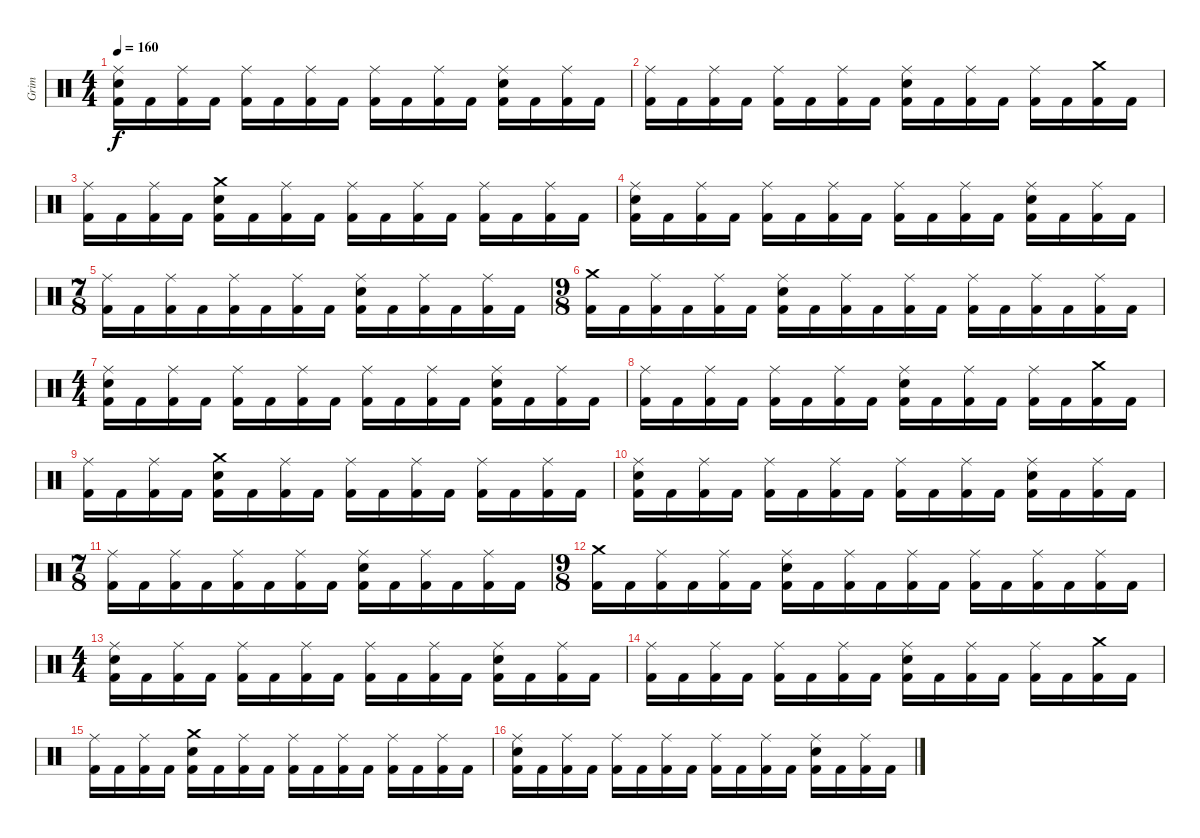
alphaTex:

\track ("Grim" "Grim") {instrument percussion}
\staff {score}
\articulation defaults
\ts (4 4)
\tempo 160
\clef neutral
\ks c
("Kick (hit) 2" "Electric Snare (hit)" "Ride (middle)").16{dy f} "Kick (hit) 2".16 ("Kick (hit) 2" "Ride (middle)").16 "Kick (hit) 2".16 ("Kick (hit) 2" "Ride (middle)").16 "Kick (hit) 2".16 ("Kick (hit) 2" "Ride (middle)").16 "Kick (hit) 2".16 ("Kick (hit) 2" "Ride (middle)").16 "Kick (hit) 2".16 ("Kick (hit) 2" "Ride (middle)").16 "Kick (hit) 2".16 ("Kick (hit) 2" "Electric Snare (hit)" "Ride (middle)").16 "Kick (hit) 2".16 ("Kick (hit) 2" "Ride (middle)").16 "Kick (hit) 2".16 |
("Kick (hit) 2" "Ride (middle)").16 "Kick (hit) 2".16 ("Kick (hit) 2" "Ride (middle)").16 "Kick (hit) 2".16 ("Kick (hit) 2" "Ride (middle)").16 "Kick (hit) 2".16 ("Kick (hit) 2" "Ride (middle)").16 "Kick (hit) 2".16 ("Kick (hit) 2" "Electric Snare (hit)" "Ride (middle)").16 "Kick (hit) 2".16 ("Kick (hit) 2" "Ride (middle)").16 "Kick (hit) 2".16 ("Kick (hit) 2" "Ride (middle)").16 "Kick (hit) 2".16 ("Kick (hit) 2" "Crash medium (hit)").16 "Kick (hit) 2".16 |
("Kick (hit) 2" "Ride (middle)").16 "Kick (hit) 2".16 ("Kick (hit) 2" "Ride (middle)").16 "Kick (hit) 2".16 ("Kick (hit) 2" "Electric Snare (hit)" "Crash medium (hit)").16 "Kick (hit) 2".16 ("Kick (hit) 2" "Ride (middle)").16 "Kick (hit) 2".16 ("Kick (hit) 2" "Ride (middle)").16 "Kick (hit) 2".16 ("Kick (hit) 2" "Ride (middle)").16 "Kick (hit) 2".16 ("Kick (hit) 2" "Ride (middle)").16 "Kick (hit) 2".16 ("Kick (hit) 2" "Ride (middle)").16 "Kick (hit) 2".16 |
("Kick (hit) 2" "Electric Snare (hit)" "Ride (middle)").16 "Kick (hit) 2".16 ("Kick (hit) 2" "Ride (middle)").16 "Kick (hit) 2".16 ("Kick (hit) 2" "Ride (middle)").16 "Kick (hit) 2".16 ("Kick (hit) 2" "Ride (middle)").16 "Kick (hit) 2".16 ("Kick (hit) 2" "Ride (middle)").16 "Kick (hit) 2".16 ("Kick (hit) 2" "Ride (middle)").16 "Kick (hit) 2".16 ("Kick (hit) 2" "Electric Snare (hit)" "Ride (middle)").16 "Kick (hit) 2".16 ("Kick (hit) 2" "Ride (middle)").16 "Kick (hit) 2".16 |
\ts (7 8)
("Kick (hit) 2" "Ride (middle)").16 "Kick (hit) 2".16 ("Kick (hit) 2" "Ride (middle)").16 "Kick (hit) 2".16 ("Kick (hit) 2" "Ride (middle)").16 "Kick (hit) 2".16 ("Kick (hit) 2" "Ride (middle)").16 "Kick (hit) 2".16 ("Kick (hit) 2" "Electric Snare (hit)" "Ride (middle)").16 "Kick (hit) 2".16 ("Kick (hit) 2" "Ride (middle)").16 "Kick (hit) 2".16 ("Kick (hit) 2" "Ride (middle)").16 "Kick (hit) 2".16 |
\ts (9 8)
("Kick (hit) 2" "Crash medium (hit)").16 "Kick (hit) 2".16 ("Kick (hit) 2" "Ride (middle)").16 "Kick (hit) 2".16 ("Kick (hit) 2" "Ride (middle)").16 "Kick (hit) 2".16 ("Kick (hit) 2" "Electric Snare (hit)" "Ride (middle)").16 "Kick (hit) 2".16 ("Kick (hit) 2" "Ride (middle)").16 "Kick (hit) 2".16 ("Kick (hit) 2" "Ride (middle)").16 "Kick (hit) 2".16 ("Kick (hit) 2" "Ride (middle)").16 "Kick (hit) 2".16 ("Kick (hit) 2" "Ride (middle)").16 "Kick (hit) 2".16 ("Kick (hit) 2" "Ride (middle)").16 "Kick (hit) 2".16 |
\ts (4 4)
("Kick (hit) 2" "Electric Snare (hit)" "Ride (middle)").16 "Kick (hit) 2".16 ("Kick (hit) 2" "Ride (middle)").16 "Kick (hit) 2".16 ("Kick (hit) 2" "Ride (middle)").16 "Kick (hit) 2".16 ("Kick (hit) 2" "Ride (middle)").16 "Kick (hit) 2".16 ("Kick (hit) 2" "Ride (middle)").16 "Kick (hit) 2".16 ("Kick (hit) 2" "Ride (middle)").16 "Kick (hit) 2".16 ("Kick (hit) 2" "Electric Snare (hit)" "Ride (middle)").16 "Kick (hit) 2".16 ("Kick (hit) 2" "Ride (middle)").16 "Kick (hit) 2".16 |
("Kick (hit) 2" "Ride (middle)").16 "Kick (hit) 2".16 ("Kick (hit) 2" "Ride (middle)").16 "Kick (hit) 2".16 ("Kick (hit) 2" "Ride (middle)").16 "Kick (hit) 2".16 ("Kick (hit) 2" "Ride (middle)").16 "Kick (hit) 2".16 ("Kick (hit) 2" "Electric Snare (hit)" "Ride (middle)").16 "Kick (hit) 2".16 ("Kick (hit) 2" "Ride (middle)").16 "Kick (hit) 2".16 ("Kick (hit) 2" "Ride (middle)").16 "Kick (hit) 2".16 ("Kick (hit) 2" "Crash medium (hit)").16 "Kick (hit) 2".16 |
("Kick (hit) 2" "Ride (middle)").16 "Kick (hit) 2".16 ("Kick (hit) 2" "Ride (middle)").16 "Kick (hit) 2".16 ("Kick (hit) 2" "Electric Snare (hit)" "Crash medium (hit)").16 "Kick (hit) 2".16 ("Kick (hit) 2" "Ride (middle)").16 "Kick (hit) 2".16 ("Kick (hit) 2" "Ride (middle)").16 "Kick (hit) 2".16 ("Kick (hit) 2" "Ride (middle)").16 "Kick (hit) 2".16 ("Kick (hit) 2" "Ride (middle)").16 "Kick (hit) 2".16 ("Kick (hit) 2" "Ride (middle)").16 "Kick (hit) 2".16 |
("Kick (hit) 2" "Electric Snare (hit)" "Ride (middle)").16 "Kick (hit) 2".16 ("Kick (hit) 2" "Ride (middle)").16 "Kick (hit) 2".16 ("Kick (hit) 2" "Ride (middle)").16 "Kick (hit) 2".16 ("Kick (hit) 2" "Ride (middle)").16 "Kick (hit) 2".16 ("Kick (hit) 2" "Ride (middle)").16 "Kick (hit) 2".16 ("Kick (hit) 2" "Ride (middle)").16 "Kick (hit) 2".16 ("Kick (hit) 2" "Electric Snare (hit)" "Ride (middle)").16 "Kick (hit) 2".16 ("Kick (hit) 2" "Ride (middle)").16 "Kick (hit) 2".16 |
\ts (7 8)
("Kick (hit) 2" "Ride (middle)").16 "Kick (hit) 2".16 ("Kick (hit) 2" "Ride (middle)").16 "Kick (hit) 2".16 ("Kick (hit) 2" "Ride (middle)").16 "Kick (hit) 2".16 ("Kick (hit) 2" "Ride (middle)").16 "Kick (hit) 2".16 ("Kick (hit) 2" "Electric Snare (hit)" "Ride (middle)").16 "Kick (hit) 2".16 ("Kick (hit) 2" "Ride (middle)").16 "Kick (hit) 2".16 ("Kick (hit) 2" "Ride (middle)").16 "Kick (hit) 2".16 |
\ts (9 8)
("Kick (hit) 2" "Crash medium (hit)").16 "Kick (hit) 2".16 ("Kick (hit) 2" "Ride (middle)").16 "Kick (hit) 2".16 ("Kick (hit) 2" "Ride (middle)").16 "Kick (hit) 2".16 ("Kick (hit) 2" "Electric Snare (hit)" "Ride (middle)").16 "Kick (hit) 2".16 ("Kick (hit) 2" "Ride (middle)").16 "Kick (hit) 2".16 ("Kick (hit) 2" "Ride (middle)").16 "Kick (hit) 2".16 ("Kick (hit) 2" "Ride (middle)").16 "Kick (hit) 2".16 ("Kick (hit) 2" "Ride (middle)").16 "Kick (hit) 2".16 ("Kick (hit) 2" "Ride (middle)").16 "Kick (hit) 2".16 |
\ts (4 4)
("Kick (hit) 2" "Electric Snare (hit)" "Ride (middle)").16 "Kick (hit) 2".16 ("Kick (hit) 2" "Ride (middle)").16 "Kick (hit) 2".16 ("Kick (hit) 2" "Ride (middle)").16 "Kick (hit) 2".16 ("Kick (hit) 2" "Ride (middle)").16 "Kick (hit) 2".16 ("Kick (hit) 2" "Ride (middle)").16 "Kick (hit) 2".16 ("Kick (hit) 2" "Ride (middle)").16 "Kick (hit) 2".16 ("Kick (hit) 2" "Electric Snare (hit)" "Ride (middle)").16 "Kick (hit) 2".16 ("Kick (hit) 2" "Ride (middle)").16 "Kick (hit) 2".16 |
("Kick (hit) 2" "Ride (middle)").16 "Kick (hit) 2".16 ("Kick (hit) 2" "Ride (middle)").16 "Kick (hit) 2".16 ("Kick (hit) 2" "Ride (middle)").16 "Kick (hit) 2".16 ("Kick (hit) 2" "Ride (middle)").16 "Kick (hit) 2".16 ("Kick (hit) 2" "Electric Snare (hit)" "Ride (middle)").16 "Kick (hit) 2".16 ("Kick (hit) 2" "Ride (middle)").16 "Kick (hit) 2".16 ("Kick (hit) 2" "Ride (middle)").16 "Kick (hit) 2".16 ("Kick (hit) 2" "Crash medium (hit)").16 "Kick (hit) 2".16 |
("Kick (hit) 2" "Ride (middle)").16 "Kick (hit) 2".16 ("Kick (hit) 2" "Ride (middle)").16 "Kick (hit) 2".16 ("Kick (hit) 2" "Electric Snare (hit)" "Crash medium (hit)").16 "Kick (hit) 2".16 ("Kick (hit) 2" "Ride (middle)").16 "Kick (hit) 2".16 ("Kick (hit) 2" "Ride (middle)").16 "Kick (hit) 2".16 ("Kick (hit) 2" "Ride (middle)").16 "Kick (hit) 2".16 ("Kick (hit) 2" "Ride (middle)").16 "Kick (hit) 2".16 ("Kick (hit) 2" "Ride (middle)").16 "Kick (hit) 2".16 |
("Kick (hit) 2" "Electric Snare (hit)" "Ride (middle)").16 "Kick (hit) 2".16 ("Kick (hit) 2" "Ride (middle)").16 "Kick (hit) 2".16 ("Kick (hit) 2" "Ride (middle)").16 "Kick (hit) 2".16 ("Kick (hit) 2" "Ride (middle)").16 "Kick (hit) 2".16 ("Kick (hit) 2" "Ride (middle)").16 "Kick (hit) 2".16 ("Kick (hit) 2" "Ride (middle)").16 "Kick (hit) 2".16 ("Kick (hit) 2" "Electric Snare (hit)" "Ride (middle)").16 "Kick (hit) 2".16 ("Kick (hit) 2" "Ride (middle)").16 "Kick (hit) 2".16
